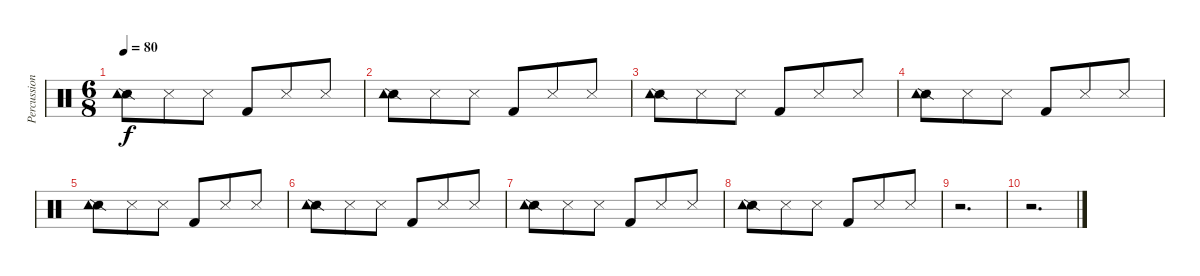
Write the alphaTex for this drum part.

\track ("Percussion" "Percussion") {instrument percussion}
\staff {score}
\articulation defaults
\ts (6 8)
\tempo 80
\clef neutral
\ks c
("Snare (side stick) 2" "Tambourine (hit)").8{dy f} "Snare (side stick) 3".8 "Snare (side stick) 3".8 "Kick (hit) 2".8 "Snare (side stick) 3".8 "Snare (side stick) 3".8 |
("Snare (side stick) 2" "Tambourine (hit)").8 "Snare (side stick) 3".8 "Snare (side stick) 3".8 "Kick (hit) 2".8 "Snare (side stick) 3".8 "Snare (side stick) 3".8 |
("Snare (side stick) 2" "Tambourine (hit)").8 "Snare (side stick) 3".8 "Snare (side stick) 3".8 "Kick (hit) 2".8 "Snare (side stick) 3".8 "Snare (side stick) 3".8 |
("Snare (side stick) 2" "Tambourine (hit)").8 "Snare (side stick) 3".8 "Snare (side stick) 3".8 "Kick (hit) 2".8 "Snare (side stick) 3".8 "Snare (side stick) 3".8 |
("Snare (side stick) 2" "Tambourine (hit)").8 "Snare (side stick) 3".8 "Snare (side stick) 3".8 "Kick (hit) 2".8 "Snare (side stick) 3".8 "Snare (side stick) 3".8 |
("Snare (side stick) 2" "Tambourine (hit)").8 "Snare (side stick) 3".8 "Snare (side stick) 3".8 "Kick (hit) 2".8 "Snare (side stick) 3".8 "Snare (side stick) 3".8 |
("Snare (side stick) 2" "Tambourine (hit)").8 "Snare (side stick) 3".8 "Snare (side stick) 3".8 "Kick (hit) 2".8 "Snare (side stick) 3".8 "Snare (side stick) 3".8 |
("Snare (side stick) 2" "Tambourine (hit)").8 "Snare (side stick) 3".8 "Snare (side stick) 3".8 "Kick (hit) 2".8 "Snare (side stick) 3".8 "Snare (side stick) 3".8 |
r.2{d} |
r.2{d}
